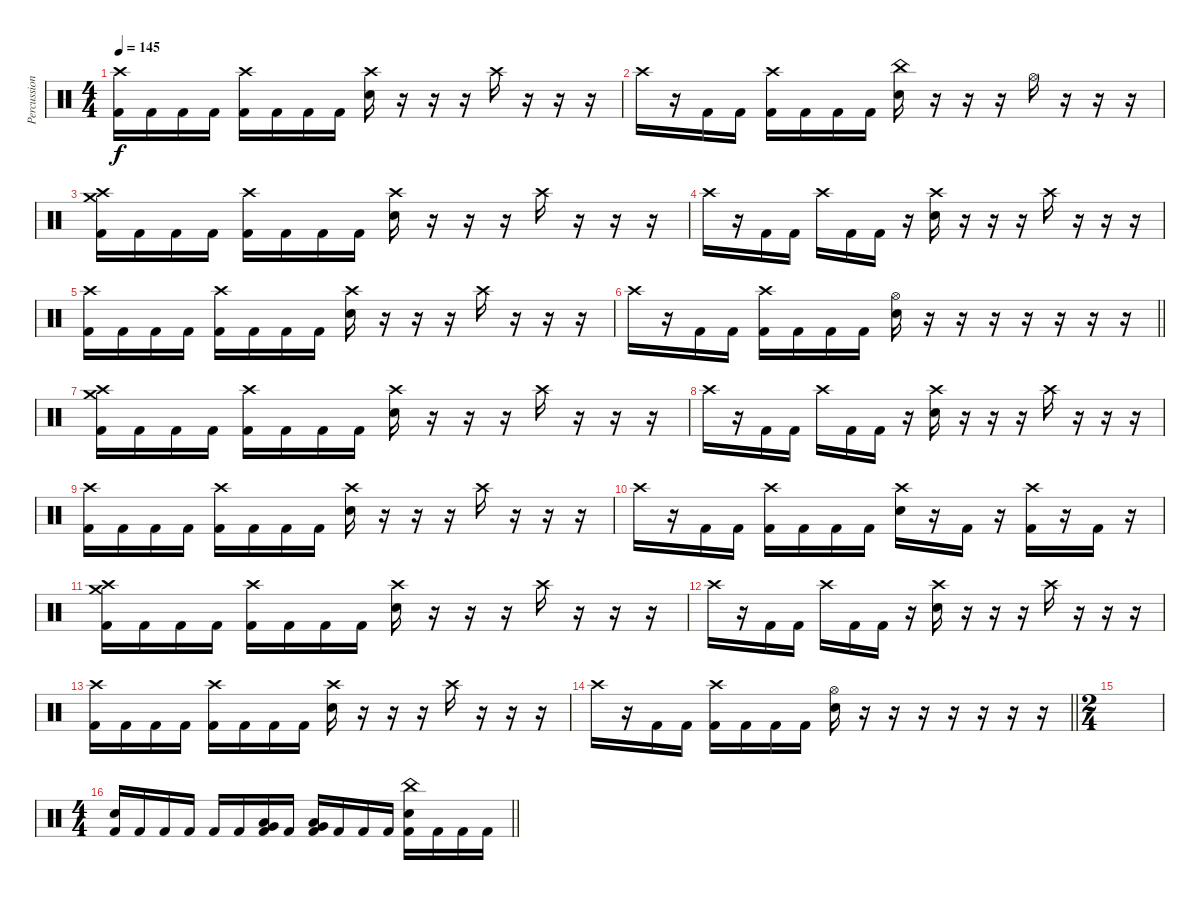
\track ("Percussion" "Percussion") {instrument percussion}
\staff {score}
\articulation defaults
\ts (4 4)
\tempo 145
\clef neutral
\ks c
("Crash high (hit)" "Kick (hit) 2").16{dy f} "Kick (hit) 2".16 "Kick (hit) 2".16 "Kick (hit) 2".16 ("Crash high (hit)" "Kick (hit) 2").16 "Kick (hit) 2".16 "Kick (hit) 2".16 "Kick (hit) 2".16 ("Crash high (hit)" "Snare (hit) 2").16 r.16 r.16 r.16 "Crash high (hit)".16 r.16 r.16 r.16 |
"Crash high (hit)".16 r.16 "Kick (hit) 2".16 "Kick (hit) 2".16 ("Crash high (hit)" "Kick (hit) 2").16 "Kick (hit) 2".16 "Kick (hit) 2".16 "Kick (hit) 2".16 ("China (hit)" "Snare (hit) 2").16 r.16 r.16 r.16 "Hi-Hat (open)".16 r.16 r.16 r.16 |
("Crash high (hit)" "Crash medium (hit)" "Kick (hit) 2").16 "Kick (hit) 2".16 "Kick (hit) 2".16 "Kick (hit) 2".16 ("Crash high (hit)" "Kick (hit) 2").16 "Kick (hit) 2".16 "Kick (hit) 2".16 "Kick (hit) 2".16 ("Crash high (hit)" "Snare (hit) 2").16 r.16 r.16 r.16 "Crash high (hit)".16 r.16 r.16 r.16 |
"Crash high (hit)".16 r.16 "Kick (hit) 2".16 "Kick (hit) 2".16 "Crash high (hit)".16 "Kick (hit) 2".16 "Kick (hit) 2".16 r.16 ("Crash high (hit)" "Snare (hit) 2").16 r.16 r.16 r.16 "Crash high (hit)".16 r.16 r.16 r.16 |
("Crash high (hit)" "Kick (hit) 2").16 "Kick (hit) 2".16 "Kick (hit) 2".16 "Kick (hit) 2".16 ("Crash high (hit)" "Kick (hit) 2").16 "Kick (hit) 2".16 "Kick (hit) 2".16 "Kick (hit) 2".16 ("Crash high (hit)" "Snare (hit) 2").16 r.16 r.16 r.16 "Crash high (hit)".16 r.16 r.16 r.16 |
\barLineRight lightlight "Crash high (hit)".16
r.16 "Kick (hit) 2".16 "Kick (hit) 2".16 ("Crash high (hit)" "Kick (hit) 2").16 "Kick (hit) 2".16 "Kick (hit) 2".16 "Kick (hit) 2".16 ("Hi-Hat (open)" "Snare (hit) 2").16 r.16 r.16 r.16 r.16 r.16 r.16 r.16 |
\section ("" "")
("Crash high (hit)" "Crash medium (hit)" "Kick (hit) 2").16 "Kick (hit) 2".16 "Kick (hit) 2".16 "Kick (hit) 2".16 ("Crash high (hit)" "Kick (hit) 2").16 "Kick (hit) 2".16 "Kick (hit) 2".16 "Kick (hit) 2".16 ("Crash high (hit)" "Snare (hit) 2").16 r.16 r.16 r.16 "Crash high (hit)".16 r.16 r.16 r.16 |
"Crash high (hit)".16 r.16 "Kick (hit) 2".16 "Kick (hit) 2".16 "Crash high (hit)".16 "Kick (hit) 2".16 "Kick (hit) 2".16 r.16 ("Crash high (hit)" "Snare (hit) 2").16 r.16 r.16 r.16 "Crash high (hit)".16 r.16 r.16 r.16 |
("Crash high (hit)" "Kick (hit) 2").16 "Kick (hit) 2".16 "Kick (hit) 2".16 "Kick (hit) 2".16 ("Crash high (hit)" "Kick (hit) 2").16 "Kick (hit) 2".16 "Kick (hit) 2".16 "Kick (hit) 2".16 ("Crash high (hit)" "Snare (hit) 2").16 r.16 r.16 r.16 "Crash high (hit)".16 r.16 r.16 r.16 |
"Crash high (hit)".16 r.16 "Kick (hit) 2".16 "Kick (hit) 2".16 ("Crash high (hit)" "Kick (hit) 2").16 "Kick (hit) 2".16 "Kick (hit) 2".16 "Kick (hit) 2".16 ("Crash high (hit)" "Snare (hit) 2").16 r.16 "Kick (hit) 2".16 r.16 ("Crash high (hit)" "Kick (hit) 2").16 r.16 "Kick (hit) 2".16 r.16 |
("Crash high (hit)" "Crash medium (hit)" "Kick (hit) 2").16 "Kick (hit) 2".16 "Kick (hit) 2".16 "Kick (hit) 2".16 ("Crash high (hit)" "Kick (hit) 2").16 "Kick (hit) 2".16 "Kick (hit) 2".16 "Kick (hit) 2".16 ("Crash high (hit)" "Snare (hit) 2").16 r.16 r.16 r.16 "Crash high (hit)".16 r.16 r.16 r.16 |
"Crash high (hit)".16 r.16 "Kick (hit) 2".16 "Kick (hit) 2".16 "Crash high (hit)".16 "Kick (hit) 2".16 "Kick (hit) 2".16 r.16 ("Crash high (hit)" "Snare (hit) 2").16 r.16 r.16 r.16 "Crash high (hit)".16 r.16 r.16 r.16 |
("Crash high (hit)" "Kick (hit) 2").16 "Kick (hit) 2".16 "Kick (hit) 2".16 "Kick (hit) 2".16 ("Crash high (hit)" "Kick (hit) 2").16 "Kick (hit) 2".16 "Kick (hit) 2".16 "Kick (hit) 2".16 ("Crash high (hit)" "Snare (hit) 2").16 r.16 r.16 r.16 "Crash high (hit)".16 r.16 r.16 r.16 |
\barLineRight lightlight "Crash high (hit)".16
r.16 "Kick (hit) 2".16 "Kick (hit) 2".16 ("Crash high (hit)" "Kick (hit) 2").16 "Kick (hit) 2".16 "Kick (hit) 2".16 "Kick (hit) 2".16 ("Hi-Hat (open)" "Snare (hit) 2").16 r.16 r.16 r.16 r.16 r.16 r.16 r.16 |
\ts (2 4)
\section ("" "")
|
\ts (4 4)
\barLineRight lightlight
("Snare (hit) 2" "Kick (hit) 2").16 "Kick (hit) 2".16 "Kick (hit) 2".16 "Kick (hit) 2".16 "Kick (hit) 2".16 "Kick (hit) 2".16 ("Low Tom (hit)" "Very Low Tom (hit)" "Kick (hit) 2").16 "Kick (hit) 2".16 ("Low Tom (hit)" "Very Low Tom (hit)" "Kick (hit) 2").16 "Kick (hit) 2".16 "Kick (hit) 2".16 "Kick (hit) 2".16 ("China (hit)" "Snare (hit) 2" "Kick (hit) 2").16 "Kick (hit) 2".16 "Kick (hit) 2".16 "Kick (hit) 2".16
